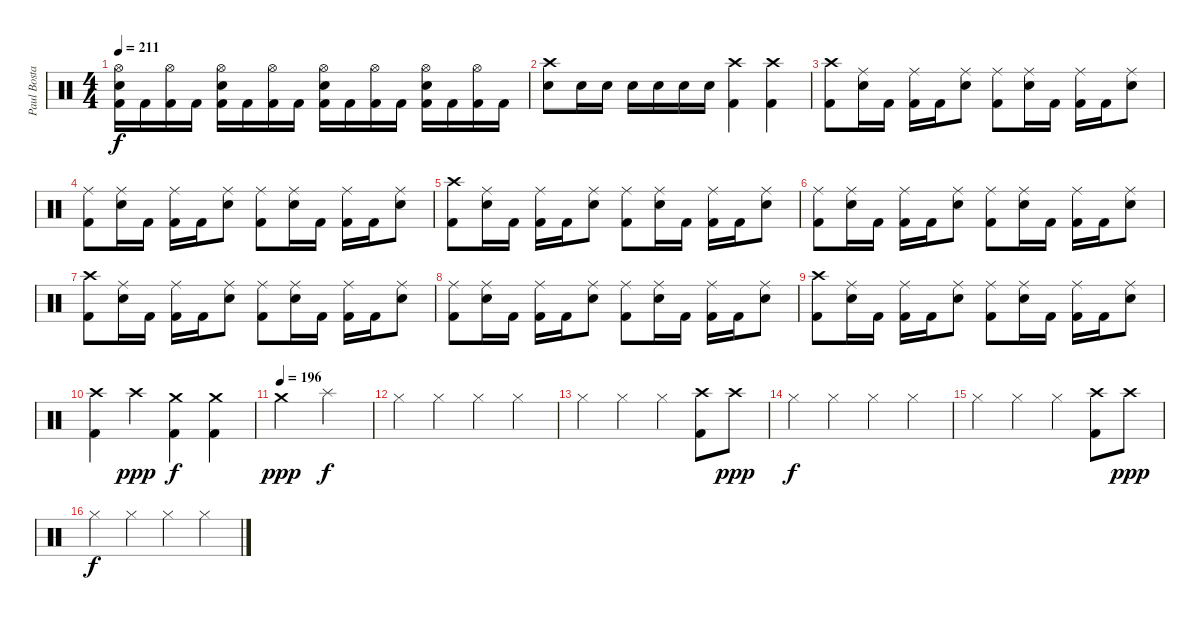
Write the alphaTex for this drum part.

\track ("Paul Bostaph" "Paul Bosta") {instrument percussion}
\staff {score}
\articulation defaults
\ts (4 4)
\tempo 211
\clef neutral
\ks c
("Kick (hit) 2" "Electric Snare (hit)" "Hi-Hat (open)").16{dy f} "Kick (hit) 2".16 ("Kick (hit) 2" "Hi-Hat (open)").16 "Kick (hit) 2".16 ("Kick (hit) 2" "Electric Snare (hit)" "Hi-Hat (open)").16 "Kick (hit) 2".16 ("Kick (hit) 2" "Hi-Hat (open)").16 "Kick (hit) 2".16 ("Kick (hit) 2" "Electric Snare (hit)" "Hi-Hat (open)").16 "Kick (hit) 2".16 ("Kick (hit) 2" "Hi-Hat (open)").16 "Kick (hit) 2".16 ("Kick (hit) 2" "Electric Snare (hit)" "Hi-Hat (open)").16 "Kick (hit) 2".16 ("Kick (hit) 2" "Hi-Hat (open)").16 "Kick (hit) 2".16 |
("Crash high (hit)" "Electric Snare (hit)").8 "Electric Snare (hit)".16 "Electric Snare (hit)".16 "Electric Snare (hit)".16 "Electric Snare (hit)".16 "Electric Snare (hit)".16 "Electric Snare (hit)".16 ("Crash high (hit)" "Kick (hit) 2").4 ("Crash high (hit)" "Kick (hit) 2").4 |
("Crash high (hit)" "Kick (hit) 2").8 ("Ride (middle)" "Electric Snare (hit)").16 "Kick (hit) 2".16 ("Ride (middle)" "Kick (hit) 2").16 "Kick (hit) 2".16 ("Ride (middle)" "Electric Snare (hit)").8 ("Ride (middle)" "Kick (hit) 2").8 ("Ride (middle)" "Electric Snare (hit)").16 "Kick (hit) 2".16 ("Ride (middle)" "Kick (hit) 2").16 "Kick (hit) 2".16 ("Ride (middle)" "Electric Snare (hit)").8 |
("Ride (middle)" "Kick (hit) 2").8 ("Ride (middle)" "Electric Snare (hit)").16 "Kick (hit) 2".16 ("Ride (middle)" "Kick (hit) 2").16 "Kick (hit) 2".16 ("Ride (middle)" "Electric Snare (hit)").8 ("Ride (middle)" "Kick (hit) 2").8 ("Ride (middle)" "Electric Snare (hit)").16 "Kick (hit) 2".16 ("Ride (middle)" "Kick (hit) 2").16 "Kick (hit) 2".16 ("Ride (middle)" "Electric Snare (hit)").8 |
("Crash high (hit)" "Kick (hit) 2").8 ("Ride (middle)" "Electric Snare (hit)").16 "Kick (hit) 2".16 ("Ride (middle)" "Kick (hit) 2").16 "Kick (hit) 2".16 ("Ride (middle)" "Electric Snare (hit)").8 ("Ride (middle)" "Kick (hit) 2").8 ("Ride (middle)" "Electric Snare (hit)").16 "Kick (hit) 2".16 ("Ride (middle)" "Kick (hit) 2").16 "Kick (hit) 2".16 ("Ride (middle)" "Electric Snare (hit)").8 |
("Ride (middle)" "Kick (hit) 2").8 ("Ride (middle)" "Electric Snare (hit)").16 "Kick (hit) 2".16 ("Ride (middle)" "Kick (hit) 2").16 "Kick (hit) 2".16 ("Ride (middle)" "Electric Snare (hit)").8 ("Ride (middle)" "Kick (hit) 2").8 ("Ride (middle)" "Electric Snare (hit)").16 "Kick (hit) 2".16 ("Ride (middle)" "Kick (hit) 2").16 "Kick (hit) 2".16 ("Ride (middle)" "Electric Snare (hit)").8 |
("Crash high (hit)" "Kick (hit) 2").8 ("Ride (middle)" "Electric Snare (hit)").16 "Kick (hit) 2".16 ("Ride (middle)" "Kick (hit) 2").16 "Kick (hit) 2".16 ("Ride (middle)" "Electric Snare (hit)").8 ("Ride (middle)" "Kick (hit) 2").8 ("Ride (middle)" "Electric Snare (hit)").16 "Kick (hit) 2".16 ("Ride (middle)" "Kick (hit) 2").16 "Kick (hit) 2".16 ("Ride (middle)" "Electric Snare (hit)").8 |
("Ride (middle)" "Kick (hit) 2").8 ("Ride (middle)" "Electric Snare (hit)").16 "Kick (hit) 2".16 ("Ride (middle)" "Kick (hit) 2").16 "Kick (hit) 2".16 ("Ride (middle)" "Electric Snare (hit)").8 ("Ride (middle)" "Kick (hit) 2").8 ("Ride (middle)" "Electric Snare (hit)").16 "Kick (hit) 2".16 ("Ride (middle)" "Kick (hit) 2").16 "Kick (hit) 2".16 ("Ride (middle)" "Electric Snare (hit)").8 |
("Crash high (hit)" "Kick (hit) 2").8 ("Ride (middle)" "Electric Snare (hit)").16 "Kick (hit) 2".16 ("Ride (middle)" "Kick (hit) 2").16 "Kick (hit) 2".16 ("Ride (middle)" "Electric Snare (hit)").8 ("Ride (middle)" "Kick (hit) 2").8 ("Ride (middle)" "Electric Snare (hit)").16 "Kick (hit) 2".16 ("Ride (middle)" "Kick (hit) 2").16 "Kick (hit) 2".16 ("Ride (middle)" "Electric Snare (hit)").8 |
("Crash high (hit)" "Kick (hit) 2").4 "Crash high (hit)".4{dy ppp} ("Crash medium (hit)" "Kick (hit) 2").4{dy f} ("Crash medium (hit)" "Kick (hit) 2").4 |
\tempo (196)
"Crash medium (hit)".2{dy ppp} "Splash (hit)".2{dy f} |
"Hi-Hat (closed)".4 "Hi-Hat (closed)".4 "Hi-Hat (closed)".4 "Hi-Hat (closed)".4 |
"Hi-Hat (closed)".4 "Hi-Hat (closed)".4 "Hi-Hat (closed)".4 ("Crash high (hit)" "Kick (hit) 2").8 "Crash high (hit)".8{dy ppp} |
"Hi-Hat (closed)".4{dy f} "Hi-Hat (closed)".4 "Hi-Hat (closed)".4 "Hi-Hat (closed)".4 |
"Hi-Hat (closed)".4 "Hi-Hat (closed)".4 "Hi-Hat (closed)".4 ("Crash high (hit)" "Kick (hit) 2").8 "Crash high (hit)".8{dy ppp} |
"Hi-Hat (closed)".4{dy f} "Hi-Hat (closed)".4 "Hi-Hat (closed)".4 "Hi-Hat (closed)".4
